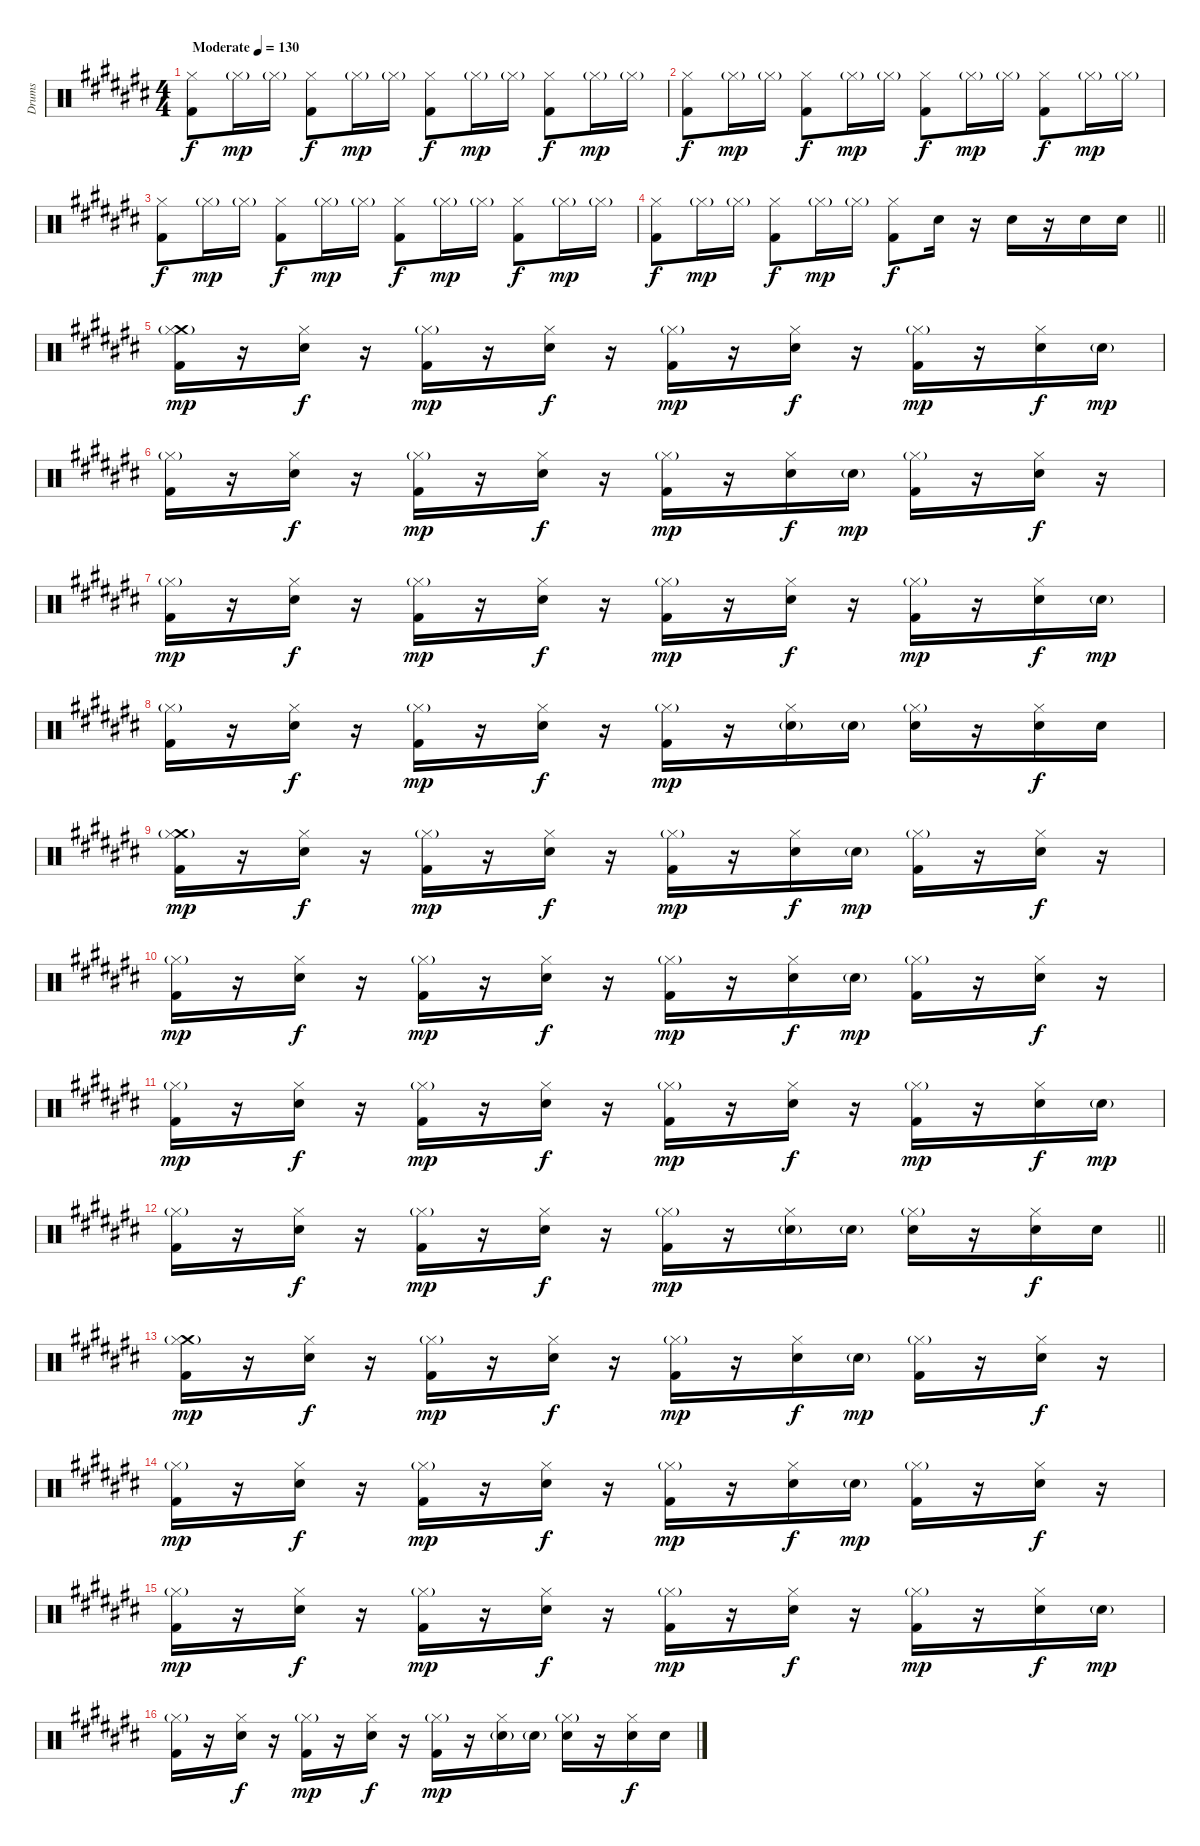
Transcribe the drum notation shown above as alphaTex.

\track ("Drums" "Drums") {instrument percussion}
\staff {score}
\articulation defaults
\ts (4 4)
\tempo (130 "Moderate")
\clef neutral
\ks a#minor
("Hi-Hat (closed)" "Kick (hit) 2").8{dy f} "Hi-Hat (closed)"{g}.16{dy mp} "Hi-Hat (closed)"{g}.16 ("Hi-Hat (closed)" "Kick (hit) 2").8{dy f} "Hi-Hat (closed)"{g}.16{dy mp} "Hi-Hat (closed)"{g}.16 ("Hi-Hat (closed)" "Kick (hit) 2").8{dy f} "Hi-Hat (closed)"{g}.16{dy mp} "Hi-Hat (closed)"{g}.16 ("Hi-Hat (closed)" "Kick (hit) 2").8{dy f} "Hi-Hat (closed)"{g}.16{dy mp} "Hi-Hat (closed)"{g}.16 |
("Hi-Hat (closed)" "Kick (hit) 2").8{dy f} "Hi-Hat (closed)"{g}.16{dy mp} "Hi-Hat (closed)"{g}.16 ("Hi-Hat (closed)" "Kick (hit) 2").8{dy f} "Hi-Hat (closed)"{g}.16{dy mp} "Hi-Hat (closed)"{g}.16 ("Hi-Hat (closed)" "Kick (hit) 2").8{dy f} "Hi-Hat (closed)"{g}.16{dy mp} "Hi-Hat (closed)"{g}.16 ("Hi-Hat (closed)" "Kick (hit) 2").8{dy f} "Hi-Hat (closed)"{g}.16{dy mp} "Hi-Hat (closed)"{g}.16 |
("Hi-Hat (closed)" "Kick (hit) 2").8{dy f} "Hi-Hat (closed)"{g}.16{dy mp} "Hi-Hat (closed)"{g}.16 ("Hi-Hat (closed)" "Kick (hit) 2").8{dy f} "Hi-Hat (closed)"{g}.16{dy mp} "Hi-Hat (closed)"{g}.16 ("Hi-Hat (closed)" "Kick (hit) 2").8{dy f} "Hi-Hat (closed)"{g}.16{dy mp} "Hi-Hat (closed)"{g}.16 ("Hi-Hat (closed)" "Kick (hit) 2").8{dy f} "Hi-Hat (closed)"{g}.16{dy mp} "Hi-Hat (closed)"{g}.16 |
\barLineRight lightlight
("Hi-Hat (closed)" "Kick (hit) 2").8{dy f} "Hi-Hat (closed)"{g}.16{dy mp} "Hi-Hat (closed)"{g}.16 ("Hi-Hat (closed)" "Kick (hit) 2").8{dy f} "Hi-Hat (closed)"{g}.16{dy mp} "Hi-Hat (closed)"{g}.16 ("Hi-Hat (closed)" "Kick (hit) 2").8{dy f} "Electric Snare (hit)".16 r.16 "Electric Snare (hit)".16 r.16 "Electric Snare (hit)".16 "Electric Snare (hit)".16 |
\section ("" "")
("Crash medium (hit)" "Hi-Hat (closed)"{g} "Kick (hit) 2").16{dy mp} r.16 ("Hi-Hat (closed)" "Electric Snare (hit)").16{dy f} r.16 ("Hi-Hat (closed)"{g} "Kick (hit) 2").16{dy mp} r.16 ("Hi-Hat (closed)" "Electric Snare (hit)").16{dy f} r.16 ("Hi-Hat (closed)"{g} "Kick (hit) 2").16{dy mp} r.16 ("Hi-Hat (closed)" "Electric Snare (hit)").16{dy f} r.16 ("Hi-Hat (closed)"{g} "Kick (hit) 2").16{dy mp} r.16 ("Hi-Hat (closed)" "Electric Snare (hit)").16{dy f} "Electric Snare (hit)"{g}.16{dy mp} |
("Hi-Hat (closed)"{g} "Kick (hit) 2").16 r.16 ("Hi-Hat (closed)" "Electric Snare (hit)").16{dy f} r.16 ("Hi-Hat (closed)"{g} "Kick (hit) 2").16{dy mp} r.16 ("Hi-Hat (closed)" "Electric Snare (hit)").16{dy f} r.16 ("Hi-Hat (closed)"{g} "Kick (hit) 2").16{dy mp} r.16 ("Hi-Hat (closed)" "Electric Snare (hit)").16{dy f} "Electric Snare (hit)"{g}.16{dy mp} ("Hi-Hat (closed)"{g} "Kick (hit) 2").16 r.16 ("Hi-Hat (closed)" "Electric Snare (hit)").16{dy f} r.16 |
("Hi-Hat (closed)"{g} "Kick (hit) 2").16{dy mp} r.16 ("Hi-Hat (closed)" "Electric Snare (hit)").16{dy f} r.16 ("Hi-Hat (closed)"{g} "Kick (hit) 2").16{dy mp} r.16 ("Hi-Hat (closed)" "Electric Snare (hit)").16{dy f} r.16 ("Hi-Hat (closed)"{g} "Kick (hit) 2").16{dy mp} r.16 ("Hi-Hat (closed)" "Electric Snare (hit)").16{dy f} r.16 ("Hi-Hat (closed)"{g} "Kick (hit) 2").16{dy mp} r.16 ("Hi-Hat (closed)" "Electric Snare (hit)").16{dy f} "Electric Snare (hit)"{g}.16{dy mp} |
("Hi-Hat (closed)"{g} "Kick (hit) 2").16 r.16 ("Hi-Hat (closed)" "Electric Snare (hit)").16{dy f} r.16 ("Hi-Hat (closed)"{g} "Kick (hit) 2").16{dy mp} r.16 ("Hi-Hat (closed)" "Electric Snare (hit)").16{dy f} r.16 ("Hi-Hat (closed)"{g} "Kick (hit) 2").16{dy mp} r.16 ("Hi-Hat (closed)" "Electric Snare (hit)"{g}).16 "Electric Snare (hit)"{g}.16 ("Hi-Hat (closed)"{g} "Electric Snare (hit)").16 r.16 ("Hi-Hat (closed)" "Electric Snare (hit)").16{dy f} "Electric Snare (hit)".16 |
("Crash medium (hit)" "Hi-Hat (closed)"{g} "Kick (hit) 2").16{dy mp} r.16 ("Hi-Hat (closed)" "Electric Snare (hit)").16{dy f} r.16 ("Hi-Hat (closed)"{g} "Kick (hit) 2").16{dy mp} r.16 ("Hi-Hat (closed)" "Electric Snare (hit)").16{dy f} r.16 ("Hi-Hat (closed)"{g} "Kick (hit) 2").16{dy mp} r.16 ("Hi-Hat (closed)" "Electric Snare (hit)").16{dy f} "Electric Snare (hit)"{g}.16{dy mp} ("Hi-Hat (closed)"{g} "Kick (hit) 2").16 r.16 ("Hi-Hat (closed)" "Electric Snare (hit)").16{dy f} r.16 |
("Hi-Hat (closed)"{g} "Kick (hit) 2").16{dy mp} r.16 ("Hi-Hat (closed)" "Electric Snare (hit)").16{dy f} r.16 ("Hi-Hat (closed)"{g} "Kick (hit) 2").16{dy mp} r.16 ("Hi-Hat (closed)" "Electric Snare (hit)").16{dy f} r.16 ("Hi-Hat (closed)"{g} "Kick (hit) 2").16{dy mp} r.16 ("Hi-Hat (closed)" "Electric Snare (hit)").16{dy f} "Electric Snare (hit)"{g}.16{dy mp} ("Hi-Hat (closed)"{g} "Kick (hit) 2").16 r.16 ("Hi-Hat (closed)" "Electric Snare (hit)").16{dy f} r.16 |
("Hi-Hat (closed)"{g} "Kick (hit) 2").16{dy mp} r.16 ("Hi-Hat (closed)" "Electric Snare (hit)").16{dy f} r.16 ("Hi-Hat (closed)"{g} "Kick (hit) 2").16{dy mp} r.16 ("Hi-Hat (closed)" "Electric Snare (hit)").16{dy f} r.16 ("Hi-Hat (closed)"{g} "Kick (hit) 2").16{dy mp} r.16 ("Hi-Hat (closed)" "Electric Snare (hit)").16{dy f} r.16 ("Hi-Hat (closed)"{g} "Kick (hit) 2").16{dy mp} r.16 ("Hi-Hat (closed)" "Electric Snare (hit)").16{dy f} "Electric Snare (hit)"{g}.16{dy mp} |
\barLineRight lightlight
("Hi-Hat (closed)"{g} "Kick (hit) 2").16 r.16 ("Hi-Hat (closed)" "Electric Snare (hit)").16{dy f} r.16 ("Hi-Hat (closed)"{g} "Kick (hit) 2").16{dy mp} r.16 ("Hi-Hat (closed)" "Electric Snare (hit)").16{dy f} r.16 ("Hi-Hat (closed)"{g} "Kick (hit) 2").16{dy mp} r.16 ("Hi-Hat (closed)" "Electric Snare (hit)"{g}).16 "Electric Snare (hit)"{g}.16 ("Hi-Hat (closed)"{g} "Electric Snare (hit)").16 r.16 ("Hi-Hat (closed)" "Electric Snare (hit)").16{dy f} "Electric Snare (hit)".16 |
\section ("" "")
("Crash medium (hit)" "Hi-Hat (closed)"{g} "Kick (hit) 2").16{dy mp} r.16 ("Hi-Hat (closed)" "Electric Snare (hit)").16{dy f} r.16 ("Hi-Hat (closed)"{g} "Kick (hit) 2").16{dy mp} r.16 ("Hi-Hat (closed)" "Electric Snare (hit)").16{dy f} r.16 ("Hi-Hat (closed)"{g} "Kick (hit) 2").16{dy mp} r.16 ("Hi-Hat (closed)" "Electric Snare (hit)").16{dy f} "Electric Snare (hit)"{g}.16{dy mp} ("Hi-Hat (closed)"{g} "Kick (hit) 2").16 r.16 ("Hi-Hat (closed)" "Electric Snare (hit)").16{dy f} r.16 |
("Hi-Hat (closed)"{g} "Kick (hit) 2").16{dy mp} r.16 ("Hi-Hat (closed)" "Electric Snare (hit)").16{dy f} r.16 ("Hi-Hat (closed)"{g} "Kick (hit) 2").16{dy mp} r.16 ("Hi-Hat (closed)" "Electric Snare (hit)").16{dy f} r.16 ("Hi-Hat (closed)"{g} "Kick (hit) 2").16{dy mp} r.16 ("Hi-Hat (closed)" "Electric Snare (hit)").16{dy f} "Electric Snare (hit)"{g}.16{dy mp} ("Hi-Hat (closed)"{g} "Kick (hit) 2").16 r.16 ("Hi-Hat (closed)" "Electric Snare (hit)").16{dy f} r.16 |
("Hi-Hat (closed)"{g} "Kick (hit) 2").16{dy mp} r.16 ("Hi-Hat (closed)" "Electric Snare (hit)").16{dy f} r.16 ("Hi-Hat (closed)"{g} "Kick (hit) 2").16{dy mp} r.16 ("Hi-Hat (closed)" "Electric Snare (hit)").16{dy f} r.16 ("Hi-Hat (closed)"{g} "Kick (hit) 2").16{dy mp} r.16 ("Hi-Hat (closed)" "Electric Snare (hit)").16{dy f} r.16 ("Hi-Hat (closed)"{g} "Kick (hit) 2").16{dy mp} r.16 ("Hi-Hat (closed)" "Electric Snare (hit)").16{dy f} "Electric Snare (hit)"{g}.16{dy mp} |
("Hi-Hat (closed)"{g} "Kick (hit) 2").16 r.16 ("Hi-Hat (closed)" "Electric Snare (hit)").16{dy f} r.16 ("Hi-Hat (closed)"{g} "Kick (hit) 2").16{dy mp} r.16 ("Hi-Hat (closed)" "Electric Snare (hit)").16{dy f} r.16 ("Hi-Hat (closed)"{g} "Kick (hit) 2").16{dy mp} r.16 ("Hi-Hat (closed)" "Electric Snare (hit)"{g}).16 "Electric Snare (hit)"{g}.16 ("Hi-Hat (closed)"{g} "Electric Snare (hit)").16 r.16 ("Hi-Hat (closed)" "Electric Snare (hit)").16{dy f} "Electric Snare (hit)".16
